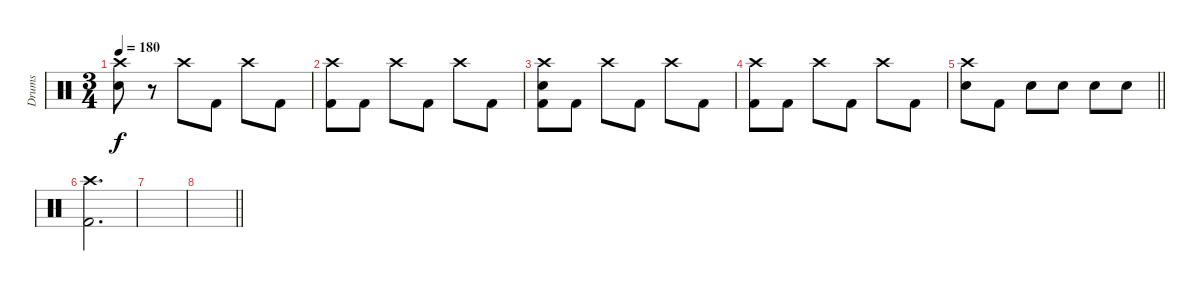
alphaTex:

\track ("Drums" "Drums") {instrument percussion}
\staff {score}
\articulation defaults
\ts (3 4)
\tempo 180
\clef neutral
\ks c
("Crash high (hit)" "Electric Snare (hit)").8{dy f} r.8 "Crash high (hit)".8 "Kick (hit) 2".8 "Crash high (hit)".8 "Kick (hit) 2".8 |
("Crash high (hit)" "Kick (hit) 2").8 "Kick (hit) 2".8 "Crash high (hit)".8 "Kick (hit) 2".8 "Crash high (hit)".8 "Kick (hit) 2".8 |
("Crash high (hit)" "Electric Snare (hit)" "Kick (hit) 2").8 "Kick (hit) 2".8 "Crash high (hit)".8 "Kick (hit) 2".8 "Crash high (hit)".8 "Kick (hit) 2".8 |
("Crash high (hit)" "Kick (hit) 2").8 "Kick (hit) 2".8 "Crash high (hit)".8 "Kick (hit) 2".8 "Crash high (hit)".8 "Kick (hit) 2".8 |
\barLineRight lightlight
("Crash high (hit)" "Electric Snare (hit)").8 "Kick (hit) 2".8 "Electric Snare (hit)".8 "Electric Snare (hit)".8 "Electric Snare (hit)".8 "Electric Snare (hit)".8 |
("Crash high (hit)" "Kick (hit) 2").2{d} |
|
\barLineRight lightlight
